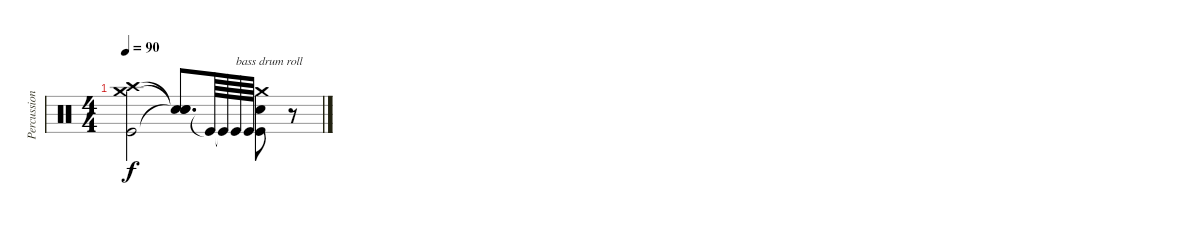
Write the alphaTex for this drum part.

\track ("Percussion (Aksu)" "Percussion") {instrument percussion}
\staff {score}
\articulation defaults
\ts (4 4)
\tempo 90
\clef neutral
\ks c
("Crash medium (hit)" "Crash high (hit)" "Kick (hit)").2{dy f} ("Snare (hit)"{t} "Snare (hit)"{t} "Snare (hit)"{t}).8{d} "Kick (hit)"{t}.64 "Kick (hit)"{t}.64 "Kick (hit)".64{txt "bass drum roll"} "Kick (hit)".64 ("Crash medium (hit)" "Snare (hit) 2" "Kick (hit)").8 r.8
